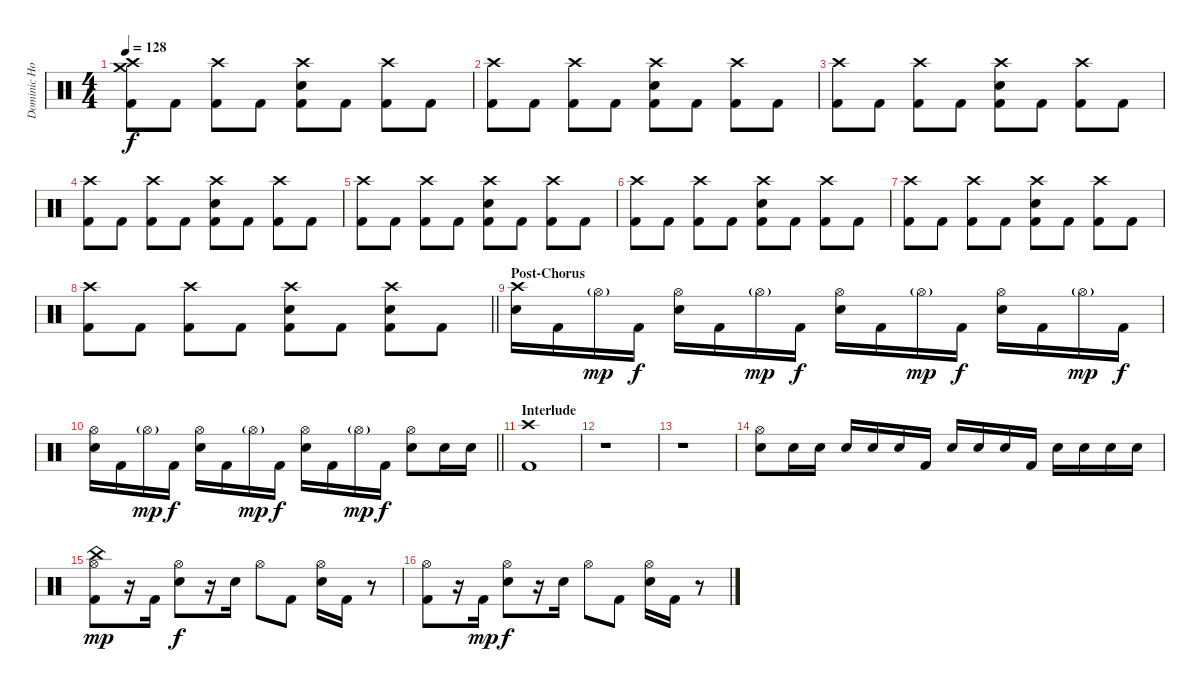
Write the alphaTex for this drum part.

\track ("Dominic Howard (Drums)" "Dominic Ho") {instrument percussion}
\staff {score}
\articulation defaults
\ts (4 4)
\tempo 128
\clef neutral
\ks c
("Crash high (hit)" "Crash medium (hit)" "Kick (hit) 2").8{dy f} "Kick (hit) 2".8 ("Crash high (hit)" "Kick (hit) 2").8 "Kick (hit) 2".8 ("Crash high (hit)" "Electric Snare (hit)" "Kick (hit) 2").8 "Kick (hit) 2".8 ("Crash high (hit)" "Kick (hit) 2").8 "Kick (hit) 2".8 |
("Crash high (hit)" "Kick (hit) 2").8 "Kick (hit) 2".8 ("Crash high (hit)" "Kick (hit) 2").8 "Kick (hit) 2".8 ("Crash high (hit)" "Electric Snare (hit)" "Kick (hit) 2").8 "Kick (hit) 2".8 ("Crash high (hit)" "Kick (hit) 2").8 "Kick (hit) 2".8 |
("Crash high (hit)" "Kick (hit) 2").8 "Kick (hit) 2".8 ("Crash high (hit)" "Kick (hit) 2").8 "Kick (hit) 2".8 ("Crash high (hit)" "Electric Snare (hit)" "Kick (hit) 2").8 "Kick (hit) 2".8 ("Crash high (hit)" "Kick (hit) 2").8 "Kick (hit) 2".8 |
("Crash high (hit)" "Kick (hit) 2").8 "Kick (hit) 2".8 ("Crash high (hit)" "Kick (hit) 2").8 "Kick (hit) 2".8 ("Crash high (hit)" "Electric Snare (hit)" "Kick (hit) 2").8 "Kick (hit) 2".8 ("Crash high (hit)" "Kick (hit) 2").8 "Kick (hit) 2".8 |
("Crash high (hit)" "Kick (hit) 2").8 "Kick (hit) 2".8 ("Crash high (hit)" "Kick (hit) 2").8 "Kick (hit) 2".8 ("Crash high (hit)" "Electric Snare (hit)" "Kick (hit) 2").8 "Kick (hit) 2".8 ("Crash high (hit)" "Kick (hit) 2").8 "Kick (hit) 2".8 |
("Crash high (hit)" "Kick (hit) 2").8 "Kick (hit) 2".8 ("Crash high (hit)" "Kick (hit) 2").8 "Kick (hit) 2".8 ("Crash high (hit)" "Electric Snare (hit)" "Kick (hit) 2").8 "Kick (hit) 2".8 ("Crash high (hit)" "Kick (hit) 2").8 "Kick (hit) 2".8 |
("Crash high (hit)" "Kick (hit) 2").8 "Kick (hit) 2".8 ("Crash high (hit)" "Kick (hit) 2").8 "Kick (hit) 2".8 ("Crash high (hit)" "Electric Snare (hit)" "Kick (hit) 2").8 "Kick (hit) 2".8 ("Crash high (hit)" "Kick (hit) 2").8 "Kick (hit) 2".8 |
\barLineRight lightlight
("Crash high (hit)" "Kick (hit) 2").8 "Kick (hit) 2".8 ("Crash high (hit)" "Kick (hit) 2").8 "Kick (hit) 2".8 ("Crash high (hit)" "Electric Snare (hit)" "Kick (hit) 2").8 "Kick (hit) 2".8 ("Crash high (hit)" "Electric Snare (hit)" "Kick (hit) 2").8 "Kick (hit) 2".8 |
\section ("" "Post-Chorus")
("Crash high (hit)" "Electric Snare (hit)").16 "Kick (hit) 2".16 "Hi-Hat (open)"{g}.16{dy mp} "Kick (hit) 2".16{dy f} ("Hi-Hat (open)" "Electric Snare (hit)").16 "Kick (hit) 2".16 "Hi-Hat (open)"{g}.16{dy mp} "Kick (hit) 2".16{dy f} ("Hi-Hat (open)" "Electric Snare (hit)").16 "Kick (hit) 2".16 "Hi-Hat (open)"{g}.16{dy mp} "Kick (hit) 2".16{dy f} ("Hi-Hat (open)" "Electric Snare (hit)").16 "Kick (hit) 2".16 "Hi-Hat (open)"{g}.16{dy mp} "Kick (hit) 2".16{dy f} |
\barLineRight lightlight
("Hi-Hat (open)" "Electric Snare (hit)").16 "Kick (hit) 2".16 "Hi-Hat (open)"{g}.16{dy mp} "Kick (hit) 2".16{dy f} ("Hi-Hat (open)" "Electric Snare (hit)").16 "Kick (hit) 2".16 "Hi-Hat (open)"{g}.16{dy mp} "Kick (hit) 2".16{dy f} ("Hi-Hat (open)" "Electric Snare (hit)").16 "Kick (hit) 2".16 "Hi-Hat (open)"{g}.16{dy mp} "Kick (hit) 2".16{dy f} ("Hi-Hat (open)" "Electric Snare (hit)").8 "Electric Snare (hit)".16 "Electric Snare (hit)".16 |
\section ("" "Interlude")
("Crash high (hit)" "Kick (hit) 2").1 |
r.1 |
r.1 |
("Hi-Hat (open)" "Electric Snare (hit)").8 "Electric Snare (hit)".16 "Electric Snare (hit)".16 "Electric Snare (hit)".16 "Electric Snare (hit)".16 "Electric Snare (hit)".16 "Kick (hit) 2".16 "Electric Snare (hit)".16 "Electric Snare (hit)".16 "Electric Snare (hit)".16 "Kick (hit) 2".16 "Electric Snare (hit)".16 "Electric Snare (hit)".16 "Electric Snare (hit)".16 "Electric Snare (hit)".16 |
("Hi-Hat (open)" "China (hit)" "Kick (hit) 2").8{dy mp} r.16 "Kick (hit) 2".16 ("Hi-Hat (open)" "Electric Snare (hit)").8{dy f} r.16 "Electric Snare (hit)".16 "Hi-Hat (open)".8 "Kick (hit) 2".8 ("Hi-Hat (open)" "Electric Snare (hit)").16 "Kick (hit) 2".16 r.8 |
("Hi-Hat (open)" "Kick (hit) 2").8 r.16 "Kick (hit) 2".16{dy mp} ("Hi-Hat (open)" "Electric Snare (hit)").8{dy f} r.16 "Electric Snare (hit)".16 "Hi-Hat (open)".8 "Kick (hit) 2".8 ("Hi-Hat (open)" "Electric Snare (hit)").16 "Kick (hit) 2".16 r.8
